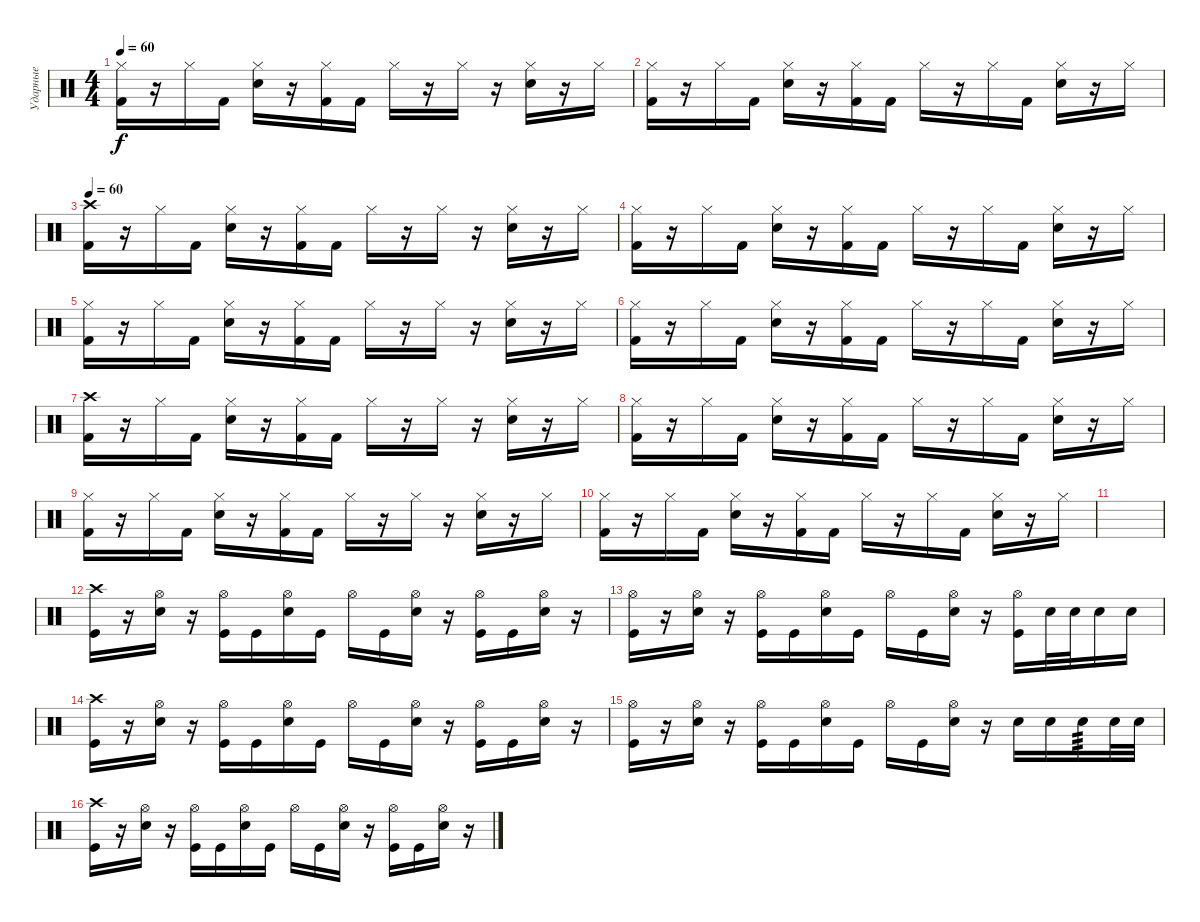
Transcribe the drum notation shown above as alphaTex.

\track ("Ударные" "Ударные") {instrument percussion}
\staff {score}
\articulation defaults
\ts (4 4)
\tempo 60
\clef neutral
\ks c
("Hi-Hat (closed)" "Kick (hit) 2").16{dy f} r.16 "Hi-Hat (closed)".16 "Kick (hit) 2".16 ("Hi-Hat (closed)" "Electric Snare (hit)").16 r.16 ("Hi-Hat (closed)" "Kick (hit) 2").16 "Kick (hit) 2".16 "Hi-Hat (closed)".16 r.16 "Hi-Hat (closed)".16 r.16 ("Hi-Hat (closed)" "Electric Snare (hit)").16 r.16 "Hi-Hat (closed)".16 |
("Hi-Hat (closed)" "Kick (hit) 2").16 r.16 "Hi-Hat (closed)".16 "Kick (hit) 2".16 ("Hi-Hat (closed)" "Electric Snare (hit)").16 r.16 ("Hi-Hat (closed)" "Kick (hit) 2").16 "Kick (hit) 2".16 "Hi-Hat (closed)".16 r.16 "Hi-Hat (closed)".16 "Kick (hit) 2".16 ("Hi-Hat (closed)" "Electric Snare (hit)").16 r.16 "Hi-Hat (closed)".16 |
\tempo 60
("Crash high (hit)" "Kick (hit) 2").16 r.16 "Hi-Hat (closed)".16 "Kick (hit) 2".16 ("Hi-Hat (closed)" "Electric Snare (hit)").16 r.16 ("Hi-Hat (closed)" "Kick (hit) 2").16 "Kick (hit) 2".16 "Hi-Hat (closed)".16 r.16 "Hi-Hat (closed)".16 r.16 ("Hi-Hat (closed)" "Electric Snare (hit)").16 r.16 "Hi-Hat (closed)".16 |
("Hi-Hat (closed)" "Kick (hit) 2").16 r.16 "Hi-Hat (closed)".16 "Kick (hit) 2".16 ("Hi-Hat (closed)" "Electric Snare (hit)").16 r.16 ("Hi-Hat (closed)" "Kick (hit) 2").16 "Kick (hit) 2".16 "Hi-Hat (closed)".16 r.16 "Hi-Hat (closed)".16 "Kick (hit) 2".16 ("Hi-Hat (closed)" "Electric Snare (hit)").16 r.16 "Hi-Hat (closed)".16 |
("Hi-Hat (closed)" "Kick (hit) 2").16 r.16 "Hi-Hat (closed)".16 "Kick (hit) 2".16 ("Hi-Hat (closed)" "Electric Snare (hit)").16 r.16 ("Hi-Hat (closed)" "Kick (hit) 2").16 "Kick (hit) 2".16 "Hi-Hat (closed)".16 r.16 "Hi-Hat (closed)".16 r.16 ("Hi-Hat (closed)" "Electric Snare (hit)").16 r.16 "Hi-Hat (closed)".16 |
("Hi-Hat (closed)" "Kick (hit) 2").16 r.16 "Hi-Hat (closed)".16 "Kick (hit) 2".16 ("Hi-Hat (closed)" "Electric Snare (hit)").16 r.16 ("Hi-Hat (closed)" "Kick (hit) 2").16 "Kick (hit) 2".16 "Hi-Hat (closed)".16 r.16 "Hi-Hat (closed)".16 "Kick (hit) 2".16 ("Hi-Hat (closed)" "Electric Snare (hit)").16 r.16 "Hi-Hat (closed)".16 |
("Crash high (hit)" "Kick (hit) 2").16 r.16 "Hi-Hat (closed)".16 "Kick (hit) 2".16 ("Hi-Hat (closed)" "Electric Snare (hit)").16 r.16 ("Hi-Hat (closed)" "Kick (hit) 2").16 "Kick (hit) 2".16 "Hi-Hat (closed)".16 r.16 "Hi-Hat (closed)".16 r.16 ("Hi-Hat (closed)" "Electric Snare (hit)").16 r.16 "Hi-Hat (closed)".16 |
("Hi-Hat (closed)" "Kick (hit) 2").16 r.16 "Hi-Hat (closed)".16 "Kick (hit) 2".16 ("Hi-Hat (closed)" "Electric Snare (hit)").16 r.16 ("Hi-Hat (closed)" "Kick (hit) 2").16 "Kick (hit) 2".16 "Hi-Hat (closed)".16 r.16 "Hi-Hat (closed)".16 "Kick (hit) 2".16 ("Hi-Hat (closed)" "Electric Snare (hit)").16 r.16 "Hi-Hat (closed)".16 |
("Hi-Hat (closed)" "Kick (hit) 2").16 r.16 "Hi-Hat (closed)".16 "Kick (hit) 2".16 ("Hi-Hat (closed)" "Electric Snare (hit)").16 r.16 ("Hi-Hat (closed)" "Kick (hit) 2").16 "Kick (hit) 2".16 "Hi-Hat (closed)".16 r.16 "Hi-Hat (closed)".16 r.16 ("Hi-Hat (closed)" "Electric Snare (hit)").16 r.16 "Hi-Hat (closed)".16 |
("Hi-Hat (closed)" "Kick (hit) 2").16 r.16 "Hi-Hat (closed)".16 "Kick (hit) 2".16 ("Hi-Hat (closed)" "Electric Snare (hit)").16 r.16 ("Hi-Hat (closed)" "Kick (hit) 2").16 "Kick (hit) 2".16 "Hi-Hat (closed)".16 r.16 "Hi-Hat (closed)".16 "Kick (hit) 2".16 ("Hi-Hat (closed)" "Electric Snare (hit)").16 r.16 "Hi-Hat (closed)".16 |
|
("Crash high (hit)" "Kick (hit)").16 r.16 ("Hi-Hat (open)" "Electric Snare (hit)").16 r.16 ("Hi-Hat (open)" "Kick (hit)").16 "Kick (hit)".16 ("Hi-Hat (open)" "Electric Snare (hit)").16 "Kick (hit)".16 "Hi-Hat (open)".16 "Kick (hit)".16 ("Hi-Hat (open)" "Electric Snare (hit)").16 r.16 ("Hi-Hat (open)" "Kick (hit)").16 "Kick (hit)".16 ("Hi-Hat (open)" "Electric Snare (hit)").16 r.16 |
("Hi-Hat (open)" "Kick (hit)").16 r.16 ("Hi-Hat (open)" "Electric Snare (hit)").16 r.16 ("Hi-Hat (open)" "Kick (hit)").16 "Kick (hit)".16 ("Hi-Hat (open)" "Electric Snare (hit)").16 "Kick (hit)".16 "Hi-Hat (open)".16 "Kick (hit)".16 ("Hi-Hat (open)" "Electric Snare (hit)").16 r.16 ("Hi-Hat (open)" "Kick (hit)").16 "Electric Snare (hit)".32 "Electric Snare (hit)".32 "Electric Snare (hit)".16 "Electric Snare (hit)".16 |
("Crash high (hit)" "Kick (hit)").16 r.16 ("Hi-Hat (open)" "Electric Snare (hit)").16 r.16 ("Hi-Hat (open)" "Kick (hit)").16 "Kick (hit)".16 ("Hi-Hat (open)" "Electric Snare (hit)").16 "Kick (hit)".16 "Hi-Hat (open)".16 "Kick (hit)".16 ("Hi-Hat (open)" "Electric Snare (hit)").16 r.16 ("Hi-Hat (open)" "Kick (hit)").16 "Kick (hit)".16 ("Hi-Hat (open)" "Electric Snare (hit)").16 r.16 |
("Hi-Hat (open)" "Kick (hit)").16 r.16 ("Hi-Hat (open)" "Electric Snare (hit)").16 r.16 ("Hi-Hat (open)" "Kick (hit)").16 "Kick (hit)".16 ("Hi-Hat (open)" "Electric Snare (hit)").16 "Kick (hit)".16 "Hi-Hat (open)".16 "Kick (hit)".16 ("Hi-Hat (open)" "Electric Snare (hit)").16 r.16 "Electric Snare (hit)".16 "Electric Snare (hit)".16 "Electric Snare (hit)".16{tp 3} "Electric Snare (hit)".32 "Electric Snare (hit)".32 |
("Crash high (hit)" "Kick (hit)").16 r.16 ("Hi-Hat (open)" "Electric Snare (hit)").16 r.16 ("Hi-Hat (open)" "Kick (hit)").16 "Kick (hit)".16 ("Hi-Hat (open)" "Electric Snare (hit)").16 "Kick (hit)".16 "Hi-Hat (open)".16 "Kick (hit)".16 ("Hi-Hat (open)" "Electric Snare (hit)").16 r.16 ("Hi-Hat (open)" "Kick (hit)").16 "Kick (hit)".16 ("Hi-Hat (open)" "Electric Snare (hit)").16 r.16
